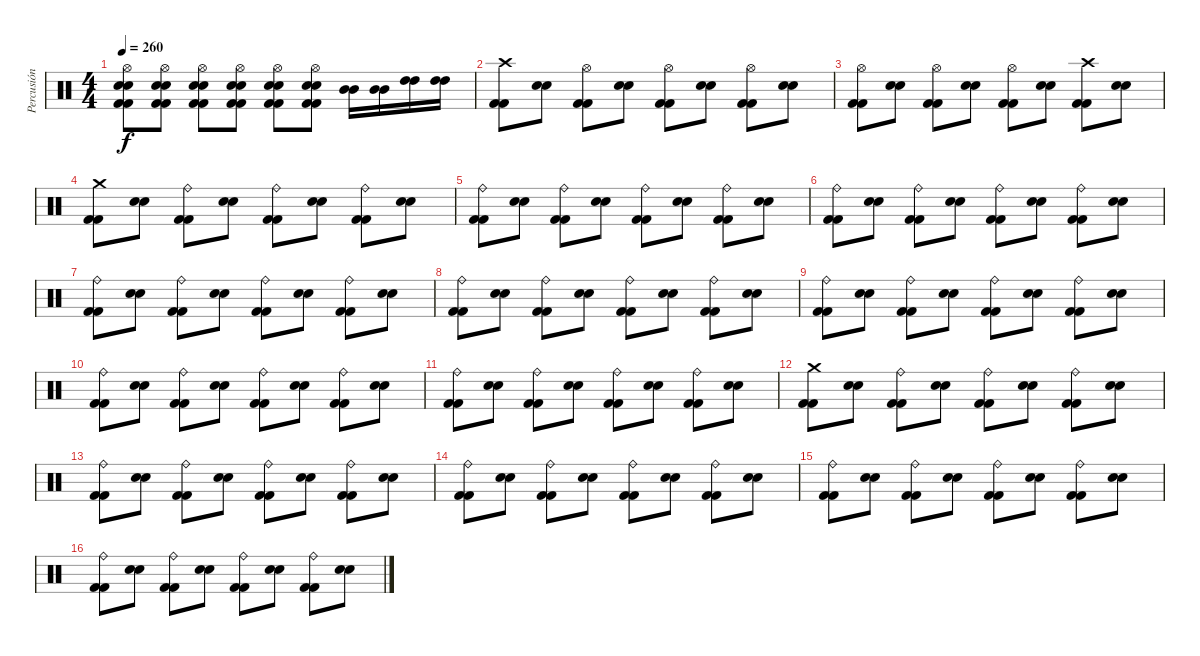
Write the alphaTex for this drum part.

\track ("Percusión" "Percusión") {instrument percussion}
\staff {score}
\articulation defaults
\ts (4 4)
\tempo 260
\clef neutral
\ks c
("Kick (hit) 2" "Kick (hit) 2" "Electric Snare (hit)" "Electric Snare (hit)" "Hi-Hat (open)").8{dy f} ("Kick (hit) 2" "Kick (hit) 2" "Electric Snare (hit)" "Electric Snare (hit)" "Hi-Hat (open)").8 ("Kick (hit) 2" "Kick (hit) 2" "Electric Snare (hit)" "Electric Snare (hit)" "Hi-Hat (open)").8 ("Kick (hit) 2" "Kick (hit) 2" "Electric Snare (hit)" "Electric Snare (hit)" "Hi-Hat (open)").8 ("Kick (hit) 2" "Kick (hit) 2" "Electric Snare (hit)" "Electric Snare (hit)" "Hi-Hat (open)").8 ("Kick (hit) 2" "Kick (hit) 2" "Electric Snare (hit)" "Electric Snare (hit)" "Hi-Hat (open)").8 ("Mid Tom (hit)" "Mid Tom (hit)").16 ("Mid Tom (hit)" "Mid Tom (hit)").16 ("High Tom (hit)" "High Tom (hit)").16 ("High Tom (hit)" "High Tom (hit)").16 |
("Kick (hit) 2" "Kick (hit) 2" "Crash high (hit)").8 ("Electric Snare (hit)" "Electric Snare (hit)").8 ("Kick (hit) 2" "Kick (hit) 2" "Hi-Hat (open)").8 ("Electric Snare (hit)" "Electric Snare (hit)").8 ("Kick (hit) 2" "Kick (hit) 2" "Hi-Hat (open)").8 ("Electric Snare (hit)" "Electric Snare (hit)").8 ("Kick (hit) 2" "Kick (hit) 2" "Hi-Hat (open)").8 ("Electric Snare (hit)" "Electric Snare (hit)").8 |
("Kick (hit) 2" "Kick (hit) 2" "Hi-Hat (open)").8 ("Electric Snare (hit)" "Electric Snare (hit)").8 ("Kick (hit) 2" "Kick (hit) 2" "Hi-Hat (open)").8 ("Electric Snare (hit)" "Electric Snare (hit)").8 ("Kick (hit) 2" "Kick (hit) 2" "Hi-Hat (open)").8 ("Electric Snare (hit)" "Electric Snare (hit)").8 ("Kick (hit) 2" "Kick (hit) 2" "Crash high (hit)").8 ("Electric Snare (hit)" "Electric Snare (hit)").8 |
("Kick (hit) 2" "Kick (hit) 2" "Crash medium (hit)").8 ("Electric Snare (hit)" "Electric Snare (hit)").8 ("Kick (hit) 2" "Kick (hit) 2" "Ride (bell)").8 ("Electric Snare (hit)" "Electric Snare (hit)").8 ("Kick (hit) 2" "Kick (hit) 2" "Ride (bell)").8 ("Electric Snare (hit)" "Electric Snare (hit)").8 ("Kick (hit) 2" "Kick (hit) 2" "Ride (bell)").8 ("Electric Snare (hit)" "Electric Snare (hit)").8 |
("Kick (hit) 2" "Kick (hit) 2" "Ride (bell)").8 ("Electric Snare (hit)" "Electric Snare (hit)").8 ("Kick (hit) 2" "Kick (hit) 2" "Ride (bell)").8 ("Electric Snare (hit)" "Electric Snare (hit)").8 ("Kick (hit) 2" "Kick (hit) 2" "Ride (bell)").8 ("Electric Snare (hit)" "Electric Snare (hit)").8 ("Kick (hit) 2" "Kick (hit) 2" "Ride (bell)").8 ("Electric Snare (hit)" "Electric Snare (hit)").8 |
("Kick (hit) 2" "Kick (hit) 2" "Ride (bell)").8 ("Electric Snare (hit)" "Electric Snare (hit)").8 ("Kick (hit) 2" "Kick (hit) 2" "Ride (bell)").8 ("Electric Snare (hit)" "Electric Snare (hit)").8 ("Kick (hit) 2" "Kick (hit) 2" "Ride (bell)").8 ("Electric Snare (hit)" "Electric Snare (hit)").8 ("Kick (hit) 2" "Kick (hit) 2" "Ride (bell)").8 ("Electric Snare (hit)" "Electric Snare (hit)").8 |
("Kick (hit) 2" "Kick (hit) 2" "Ride (bell)").8 ("Electric Snare (hit)" "Electric Snare (hit)").8 ("Kick (hit) 2" "Kick (hit) 2" "Ride (bell)").8 ("Electric Snare (hit)" "Electric Snare (hit)").8 ("Kick (hit) 2" "Kick (hit) 2" "Ride (bell)").8 ("Electric Snare (hit)" "Electric Snare (hit)").8 ("Kick (hit) 2" "Kick (hit) 2" "Ride (bell)").8 ("Electric Snare (hit)" "Electric Snare (hit)").8 |
("Kick (hit) 2" "Kick (hit) 2" "Ride (bell)").8 ("Electric Snare (hit)" "Electric Snare (hit)").8 ("Kick (hit) 2" "Kick (hit) 2" "Ride (bell)").8 ("Electric Snare (hit)" "Electric Snare (hit)").8 ("Kick (hit) 2" "Kick (hit) 2" "Ride (bell)").8 ("Electric Snare (hit)" "Electric Snare (hit)").8 ("Kick (hit) 2" "Kick (hit) 2" "Ride (bell)").8 ("Electric Snare (hit)" "Electric Snare (hit)").8 |
("Kick (hit) 2" "Kick (hit) 2" "Ride (bell)").8 ("Electric Snare (hit)" "Electric Snare (hit)").8 ("Kick (hit) 2" "Kick (hit) 2" "Ride (bell)").8 ("Electric Snare (hit)" "Electric Snare (hit)").8 ("Kick (hit) 2" "Kick (hit) 2" "Ride (bell)").8 ("Electric Snare (hit)" "Electric Snare (hit)").8 ("Kick (hit) 2" "Kick (hit) 2" "Ride (bell)").8 ("Electric Snare (hit)" "Electric Snare (hit)").8 |
("Kick (hit) 2" "Kick (hit) 2" "Ride (bell)").8 ("Electric Snare (hit)" "Electric Snare (hit)").8 ("Kick (hit) 2" "Kick (hit) 2" "Ride (bell)").8 ("Electric Snare (hit)" "Electric Snare (hit)").8 ("Kick (hit) 2" "Kick (hit) 2" "Ride (bell)").8 ("Electric Snare (hit)" "Electric Snare (hit)").8 ("Kick (hit) 2" "Kick (hit) 2" "Ride (bell)").8 ("Electric Snare (hit)" "Electric Snare (hit)").8 |
("Kick (hit) 2" "Kick (hit) 2" "Ride (bell)").8 ("Electric Snare (hit)" "Electric Snare (hit)").8 ("Kick (hit) 2" "Kick (hit) 2" "Ride (bell)").8 ("Electric Snare (hit)" "Electric Snare (hit)").8 ("Kick (hit) 2" "Kick (hit) 2" "Ride (bell)").8 ("Electric Snare (hit)" "Electric Snare (hit)").8 ("Kick (hit) 2" "Kick (hit) 2" "Ride (bell)").8 ("Electric Snare (hit)" "Electric Snare (hit)").8 |
("Kick (hit) 2" "Kick (hit) 2" "Crash medium (hit)").8 ("Electric Snare (hit)" "Electric Snare (hit)").8 ("Kick (hit) 2" "Kick (hit) 2" "Ride (bell)").8 ("Electric Snare (hit)" "Electric Snare (hit)").8 ("Kick (hit) 2" "Kick (hit) 2" "Ride (bell)").8 ("Electric Snare (hit)" "Electric Snare (hit)").8 ("Kick (hit) 2" "Kick (hit) 2" "Ride (bell)").8 ("Electric Snare (hit)" "Electric Snare (hit)").8 |
("Kick (hit) 2" "Kick (hit) 2" "Ride (bell)").8 ("Electric Snare (hit)" "Electric Snare (hit)").8 ("Kick (hit) 2" "Kick (hit) 2" "Ride (bell)").8 ("Electric Snare (hit)" "Electric Snare (hit)").8 ("Kick (hit) 2" "Kick (hit) 2" "Ride (bell)").8 ("Electric Snare (hit)" "Electric Snare (hit)").8 ("Kick (hit) 2" "Kick (hit) 2" "Ride (bell)").8 ("Electric Snare (hit)" "Electric Snare (hit)").8 |
("Kick (hit) 2" "Kick (hit) 2" "Ride (bell)").8 ("Electric Snare (hit)" "Electric Snare (hit)").8 ("Kick (hit) 2" "Kick (hit) 2" "Ride (bell)").8 ("Electric Snare (hit)" "Electric Snare (hit)").8 ("Kick (hit) 2" "Kick (hit) 2" "Ride (bell)").8 ("Electric Snare (hit)" "Electric Snare (hit)").8 ("Kick (hit) 2" "Kick (hit) 2" "Ride (bell)").8 ("Electric Snare (hit)" "Electric Snare (hit)").8 |
("Kick (hit) 2" "Kick (hit) 2" "Ride (bell)").8 ("Electric Snare (hit)" "Electric Snare (hit)").8 ("Kick (hit) 2" "Kick (hit) 2" "Ride (bell)").8 ("Electric Snare (hit)" "Electric Snare (hit)").8 ("Kick (hit) 2" "Kick (hit) 2" "Ride (bell)").8 ("Electric Snare (hit)" "Electric Snare (hit)").8 ("Kick (hit) 2" "Kick (hit) 2" "Ride (bell)").8 ("Electric Snare (hit)" "Electric Snare (hit)").8 |
("Kick (hit) 2" "Kick (hit) 2" "Ride (bell)").8 ("Electric Snare (hit)" "Electric Snare (hit)").8 ("Kick (hit) 2" "Kick (hit) 2" "Ride (bell)").8 ("Electric Snare (hit)" "Electric Snare (hit)").8 ("Kick (hit) 2" "Kick (hit) 2" "Ride (bell)").8 ("Electric Snare (hit)" "Electric Snare (hit)").8 ("Kick (hit) 2" "Kick (hit) 2" "Ride (bell)").8 ("Electric Snare (hit)" "Electric Snare (hit)").8
